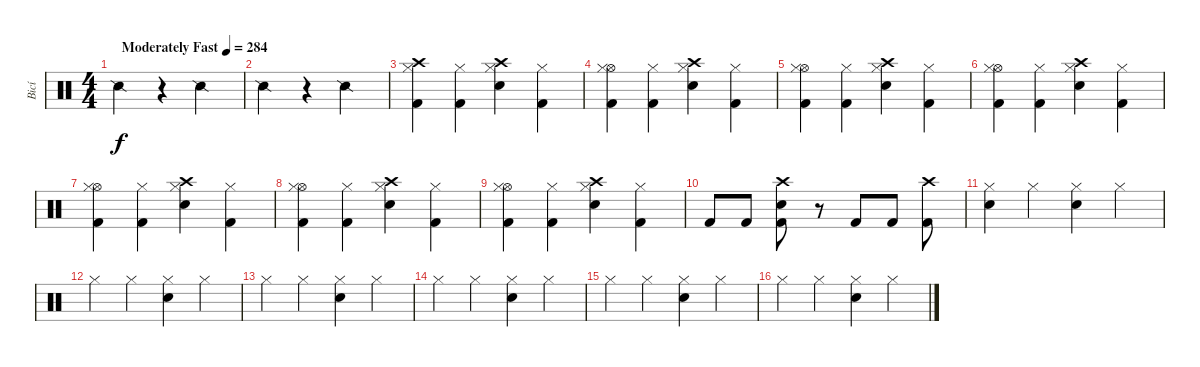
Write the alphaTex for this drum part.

\track ("Bicí" "Bicí") {instrument percussion}
\staff {score}
\articulation defaults
\ts (4 4)
\tempo (284 "Moderately Fast")
\clef neutral
\ks c "Snare (side stick) 2".4{dy f}
r.4 "Snare (side stick) 2".4 |
"Snare (side stick) 2".4 r.4 "Snare (side stick) 2".4 |
("Crash high (hit)" "Hi-Hat (closed)" "Kick (hit) 2").4 ("Hi-Hat (closed)" "Kick (hit) 2").4 ("Crash high (hit)" "Hi-Hat (closed)" "Electric Snare (hit)").4 ("Hi-Hat (closed)" "Kick (hit) 2").4 |
("Hi-Hat (open)" "Hi-Hat (closed)" "Kick (hit) 2").4 ("Hi-Hat (closed)" "Kick (hit) 2").4 ("Crash high (hit)" "Hi-Hat (closed)" "Electric Snare (hit)").4 ("Hi-Hat (closed)" "Kick (hit) 2").4 |
("Hi-Hat (open)" "Hi-Hat (closed)" "Kick (hit) 2").4 ("Hi-Hat (closed)" "Kick (hit) 2").4 ("Crash high (hit)" "Hi-Hat (closed)" "Electric Snare (hit)").4 ("Hi-Hat (closed)" "Kick (hit) 2").4 |
("Hi-Hat (open)" "Hi-Hat (closed)" "Kick (hit) 2").4 ("Hi-Hat (closed)" "Kick (hit) 2").4 ("Crash high (hit)" "Hi-Hat (closed)" "Electric Snare (hit)").4 ("Hi-Hat (closed)" "Kick (hit) 2").4 |
("Hi-Hat (open)" "Hi-Hat (closed)" "Kick (hit) 2").4 ("Hi-Hat (closed)" "Kick (hit) 2").4 ("Crash high (hit)" "Hi-Hat (closed)" "Electric Snare (hit)").4 ("Hi-Hat (closed)" "Kick (hit) 2").4 |
("Hi-Hat (open)" "Hi-Hat (closed)" "Kick (hit) 2").4 ("Hi-Hat (closed)" "Kick (hit) 2").4 ("Crash high (hit)" "Hi-Hat (closed)" "Electric Snare (hit)").4 ("Hi-Hat (closed)" "Kick (hit) 2").4 |
("Hi-Hat (open)" "Hi-Hat (closed)" "Kick (hit) 2").4 ("Hi-Hat (closed)" "Kick (hit) 2").4 ("Crash high (hit)" "Hi-Hat (closed)" "Electric Snare (hit)").4 ("Hi-Hat (closed)" "Kick (hit) 2").4 |
"Kick (hit) 2".8 "Kick (hit) 2".8 ("Crash high (hit)" "Electric Snare (hit)" "Kick (hit) 2").8 r.8 "Kick (hit) 2".8 "Kick (hit) 2".8 ("Crash high (hit)" "Kick (hit) 2").8 |
("Hi-Hat (closed)" "Electric Snare (hit)").4 "Hi-Hat (closed)".4 ("Hi-Hat (closed)" "Electric Snare (hit)").4 "Hi-Hat (closed)".4 |
"Hi-Hat (closed)".4 "Hi-Hat (closed)".4 ("Hi-Hat (closed)" "Electric Snare (hit)").4 "Hi-Hat (closed)".4 |
"Hi-Hat (closed)".4 "Hi-Hat (closed)".4 ("Hi-Hat (closed)" "Electric Snare (hit)").4 "Hi-Hat (closed)".4 |
"Hi-Hat (closed)".4 "Hi-Hat (closed)".4 ("Hi-Hat (closed)" "Electric Snare (hit)").4 "Hi-Hat (closed)".4 |
"Hi-Hat (closed)".4 "Hi-Hat (closed)".4 ("Hi-Hat (closed)" "Electric Snare (hit)").4 "Hi-Hat (closed)".4 |
"Hi-Hat (closed)".4 "Hi-Hat (closed)".4 ("Hi-Hat (closed)" "Electric Snare (hit)").4 "Hi-Hat (closed)".4
